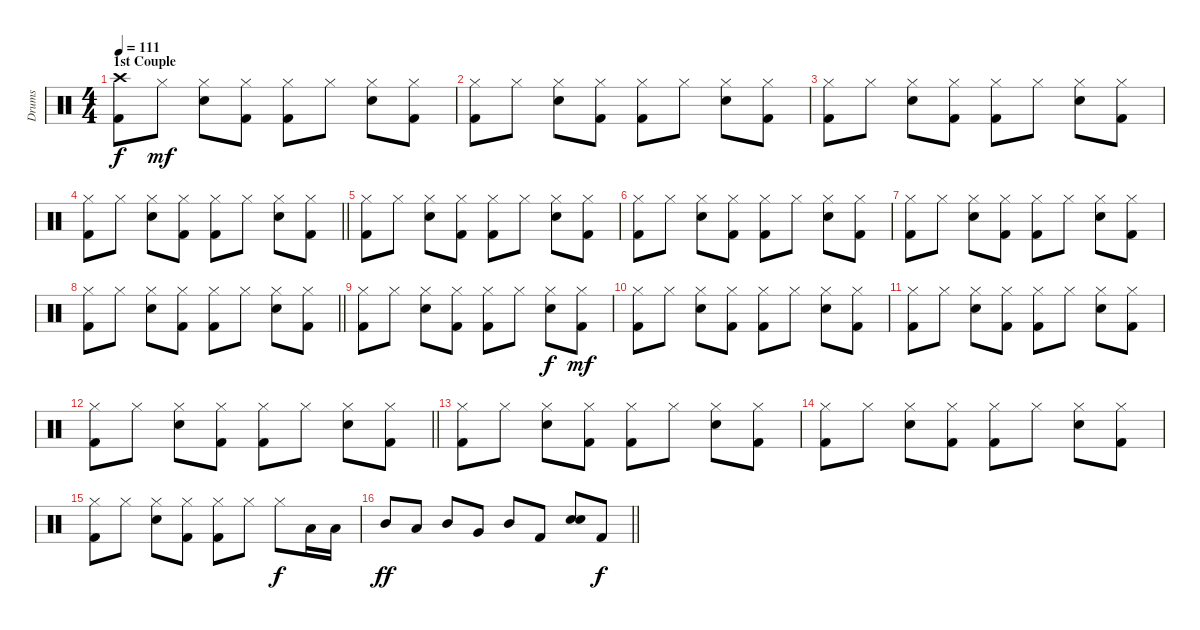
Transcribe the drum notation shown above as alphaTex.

\track ("Drums" "Drums") {instrument percussion}
\staff {score}
\articulation defaults
\ts (4 4)
\section ("" "1st Couple")
\tempo 111
\clef neutral
\ks c
("Crash high (hit)" "Kick (hit) 2").8{dy f} "Hi-Hat (closed)".8{dy mf} ("Hi-Hat (closed)" "Electric Snare (hit)").8 ("Hi-Hat (closed)" "Kick (hit) 2").8 ("Hi-Hat (closed)" "Kick (hit) 2").8 "Hi-Hat (closed)".8 ("Hi-Hat (closed)" "Electric Snare (hit)").8 ("Hi-Hat (closed)" "Kick (hit) 2").8 |
("Hi-Hat (closed)" "Kick (hit) 2").8 "Hi-Hat (closed)".8 ("Hi-Hat (closed)" "Electric Snare (hit)").8 ("Hi-Hat (closed)" "Kick (hit) 2").8 ("Hi-Hat (closed)" "Kick (hit) 2").8 "Hi-Hat (closed)".8 ("Hi-Hat (closed)" "Electric Snare (hit)").8 ("Hi-Hat (closed)" "Kick (hit) 2").8 |
("Hi-Hat (closed)" "Kick (hit) 2").8 "Hi-Hat (closed)".8 ("Hi-Hat (closed)" "Electric Snare (hit)").8 ("Hi-Hat (closed)" "Kick (hit) 2").8 ("Hi-Hat (closed)" "Kick (hit) 2").8 "Hi-Hat (closed)".8 ("Hi-Hat (closed)" "Electric Snare (hit)").8 ("Hi-Hat (closed)" "Kick (hit) 2").8 |
\barLineRight lightlight
("Hi-Hat (closed)" "Kick (hit) 2").8 "Hi-Hat (closed)".8 ("Hi-Hat (closed)" "Electric Snare (hit)").8 ("Hi-Hat (closed)" "Kick (hit) 2").8 ("Hi-Hat (closed)" "Kick (hit) 2").8 "Hi-Hat (closed)".8 ("Hi-Hat (closed)" "Electric Snare (hit)").8 ("Hi-Hat (closed)" "Kick (hit) 2").8 |
("Hi-Hat (closed)" "Kick (hit) 2").8 "Hi-Hat (closed)".8 ("Hi-Hat (closed)" "Electric Snare (hit)").8 ("Hi-Hat (closed)" "Kick (hit) 2").8 ("Hi-Hat (closed)" "Kick (hit) 2").8 "Hi-Hat (closed)".8 ("Hi-Hat (closed)" "Electric Snare (hit)").8 ("Hi-Hat (closed)" "Kick (hit) 2").8 |
("Hi-Hat (closed)" "Kick (hit) 2").8 "Hi-Hat (closed)".8 ("Hi-Hat (closed)" "Electric Snare (hit)").8 ("Hi-Hat (closed)" "Kick (hit) 2").8 ("Hi-Hat (closed)" "Kick (hit) 2").8 "Hi-Hat (closed)".8 ("Hi-Hat (closed)" "Electric Snare (hit)").8 ("Hi-Hat (closed)" "Kick (hit) 2").8 |
("Hi-Hat (closed)" "Kick (hit) 2").8 "Hi-Hat (closed)".8 ("Hi-Hat (closed)" "Electric Snare (hit)").8 ("Hi-Hat (closed)" "Kick (hit) 2").8 ("Hi-Hat (closed)" "Kick (hit) 2").8 "Hi-Hat (closed)".8 ("Hi-Hat (closed)" "Electric Snare (hit)").8 ("Hi-Hat (closed)" "Kick (hit) 2").8 |
\barLineRight lightlight
("Hi-Hat (closed)" "Kick (hit) 2").8 "Hi-Hat (closed)".8 ("Hi-Hat (closed)" "Electric Snare (hit)").8 ("Hi-Hat (closed)" "Kick (hit) 2").8 ("Hi-Hat (closed)" "Kick (hit) 2").8 "Hi-Hat (closed)".8 ("Hi-Hat (closed)" "Electric Snare (hit)").8 ("Hi-Hat (closed)" "Kick (hit) 2").8 |
("Hi-Hat (closed)" "Kick (hit) 2").8 "Hi-Hat (closed)".8 ("Hi-Hat (closed)" "Electric Snare (hit)").8 ("Hi-Hat (closed)" "Kick (hit) 2").8 ("Hi-Hat (closed)" "Kick (hit) 2").8 "Hi-Hat (closed)".8 ("Hi-Hat (closed)" "Electric Snare (hit)").8{dy f} ("Hi-Hat (closed)" "Kick (hit) 2").8{dy mf} |
("Hi-Hat (closed)" "Kick (hit) 2").8 "Hi-Hat (closed)".8 ("Hi-Hat (closed)" "Electric Snare (hit)").8 ("Hi-Hat (closed)" "Kick (hit) 2").8 ("Hi-Hat (closed)" "Kick (hit) 2").8 "Hi-Hat (closed)".8 ("Hi-Hat (closed)" "Electric Snare (hit)").8 ("Hi-Hat (closed)" "Kick (hit) 2").8 |
("Hi-Hat (closed)" "Kick (hit) 2").8 "Hi-Hat (closed)".8 ("Hi-Hat (closed)" "Electric Snare (hit)").8 ("Hi-Hat (closed)" "Kick (hit) 2").8 ("Hi-Hat (closed)" "Kick (hit) 2").8 "Hi-Hat (closed)".8 ("Hi-Hat (closed)" "Electric Snare (hit)").8 ("Hi-Hat (closed)" "Kick (hit) 2").8 |
\barLineRight lightlight
("Hi-Hat (closed)" "Kick (hit) 2").8 "Hi-Hat (closed)".8 ("Hi-Hat (closed)" "Electric Snare (hit)").8 ("Hi-Hat (closed)" "Kick (hit) 2").8 ("Hi-Hat (closed)" "Kick (hit) 2").8 "Hi-Hat (closed)".8 ("Hi-Hat (closed)" "Electric Snare (hit)").8 ("Hi-Hat (closed)" "Kick (hit) 2").8 |
("Hi-Hat (closed)" "Kick (hit) 2").8 "Hi-Hat (closed)".8 ("Hi-Hat (closed)" "Electric Snare (hit)").8 ("Hi-Hat (closed)" "Kick (hit) 2").8 ("Hi-Hat (closed)" "Kick (hit) 2").8 "Hi-Hat (closed)".8 ("Hi-Hat (closed)" "Electric Snare (hit)").8 ("Hi-Hat (closed)" "Kick (hit) 2").8 |
("Hi-Hat (closed)" "Kick (hit) 2").8 "Hi-Hat (closed)".8 ("Hi-Hat (closed)" "Electric Snare (hit)").8 ("Hi-Hat (closed)" "Kick (hit) 2").8 ("Hi-Hat (closed)" "Kick (hit) 2").8 "Hi-Hat (closed)".8 ("Hi-Hat (closed)" "Electric Snare (hit)").8 ("Hi-Hat (closed)" "Kick (hit) 2").8 |
("Hi-Hat (closed)" "Kick (hit) 2").8 "Hi-Hat (closed)".8 ("Hi-Hat (closed)" "Electric Snare (hit)").8 ("Hi-Hat (closed)" "Kick (hit) 2").8 ("Hi-Hat (closed)" "Kick (hit) 2").8 "Hi-Hat (closed)".8 "Hi-Hat (closed)".8{dy f} "Low Tom (hit)".16 "Low Tom (hit)".16 |
\barLineRight lightlight "Mid Tom (hit)".8{dy ff} "Low Tom (hit)".8 "Mid Tom (hit)".8 "Very Low Tom (hit)".8 "Mid Tom (hit)".8 "Kick (hit) 2".8
("Electric Snare (hit)" "Electric Snare (hit)").8{bd 60} "Kick (hit) 2".8{dy f}
